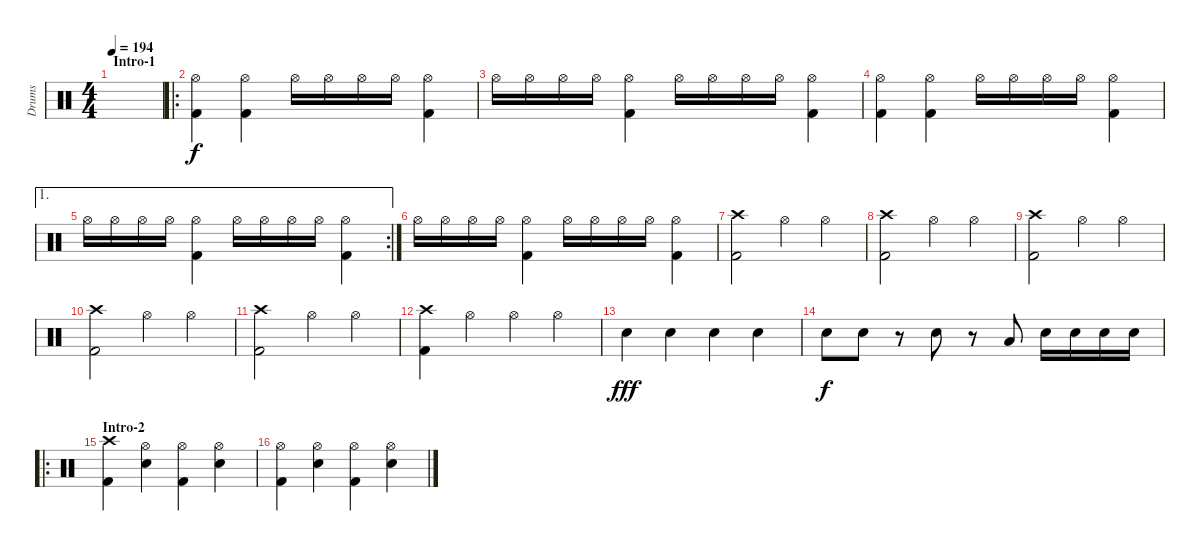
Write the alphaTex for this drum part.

\track ("Drums" "Drums") {instrument percussion}
\staff {score}
\articulation defaults
\ts (4 4)
\section ("" "Intro-1")
\tempo 194
\clef neutral
\ks c
|
\ro
("Hi-Hat (open)" "Kick (hit) 2").4 ("Hi-Hat (open)" "Kick (hit) 2").4 "Hi-Hat (open)".16 "Hi-Hat (open)".16 "Hi-Hat (open)".16 "Hi-Hat (open)".16 ("Hi-Hat (open)" "Kick (hit) 2").4 |
"Hi-Hat (open)".16 "Hi-Hat (open)".16 "Hi-Hat (open)".16 "Hi-Hat (open)".16 ("Hi-Hat (open)" "Kick (hit) 2").4 "Hi-Hat (open)".16 "Hi-Hat (open)".16 "Hi-Hat (open)".16 "Hi-Hat (open)".16 ("Hi-Hat (open)" "Kick (hit) 2").4 |
("Hi-Hat (open)" "Kick (hit) 2").4 ("Hi-Hat (open)" "Kick (hit) 2").4 "Hi-Hat (open)".16 "Hi-Hat (open)".16 "Hi-Hat (open)".16 "Hi-Hat (open)".16 ("Hi-Hat (open)" "Kick (hit) 2").4 |
\ae 1
\rc 2 "Hi-Hat (open)".16 "Hi-Hat (open)".16 "Hi-Hat (open)".16 "Hi-Hat (open)".16
("Hi-Hat (open)" "Kick (hit) 2").4 "Hi-Hat (open)".16 "Hi-Hat (open)".16 "Hi-Hat (open)".16 "Hi-Hat (open)".16 ("Hi-Hat (open)" "Kick (hit) 2").4 |
"Hi-Hat (open)".16 "Hi-Hat (open)".16 "Hi-Hat (open)".16 "Hi-Hat (open)".16 ("Hi-Hat (open)" "Kick (hit) 2").4 "Hi-Hat (open)".16 "Hi-Hat (open)".16 "Hi-Hat (open)".16 "Hi-Hat (open)".16 ("Hi-Hat (open)" "Kick (hit) 2").4 |
("Crash high (hit)" "Kick (hit) 2").2 "Hi-Hat (open)".4 "Hi-Hat (open)".4 |
("Crash high (hit)" "Kick (hit) 2").2 "Hi-Hat (open)".4 "Hi-Hat (open)".4 |
("Crash high (hit)" "Kick (hit) 2").2 "Hi-Hat (open)".4 "Hi-Hat (open)".4 |
("Crash high (hit)" "Kick (hit) 2").2 "Hi-Hat (open)".4 "Hi-Hat (open)".4 |
("Crash high (hit)" "Kick (hit) 2").2 "Hi-Hat (open)".4 "Hi-Hat (open)".4 |
("Crash high (hit)" "Kick (hit) 2").4 "Hi-Hat (open)".4 "Hi-Hat (open)".4 "Hi-Hat (open)".4 |
"Electric Snare (hit)".4{dy fff} "Electric Snare (hit)".4 "Electric Snare (hit)".4 "Electric Snare (hit)".4 |
"Electric Snare (hit)".8{dy f} "Electric Snare (hit)".8 r.8 "Electric Snare (hit)".8 r.8 "Low Tom (hit)".8 "Electric Snare (hit)".16 "Electric Snare (hit)".16 "Electric Snare (hit)".16 "Electric Snare (hit)".16 |
\ro
\section ("" "Intro-2")
("Crash high (hit)" "Kick (hit) 2").4 ("Hi-Hat (open)" "Electric Snare (hit)").4 ("Hi-Hat (open)" "Kick (hit) 2").4 ("Hi-Hat (open)" "Electric Snare (hit)").4 |
("Hi-Hat (open)" "Kick (hit) 2").4 ("Hi-Hat (open)" "Electric Snare (hit)").4 ("Hi-Hat (open)" "Kick (hit) 2").4 ("Hi-Hat (open)" "Electric Snare (hit)").4
